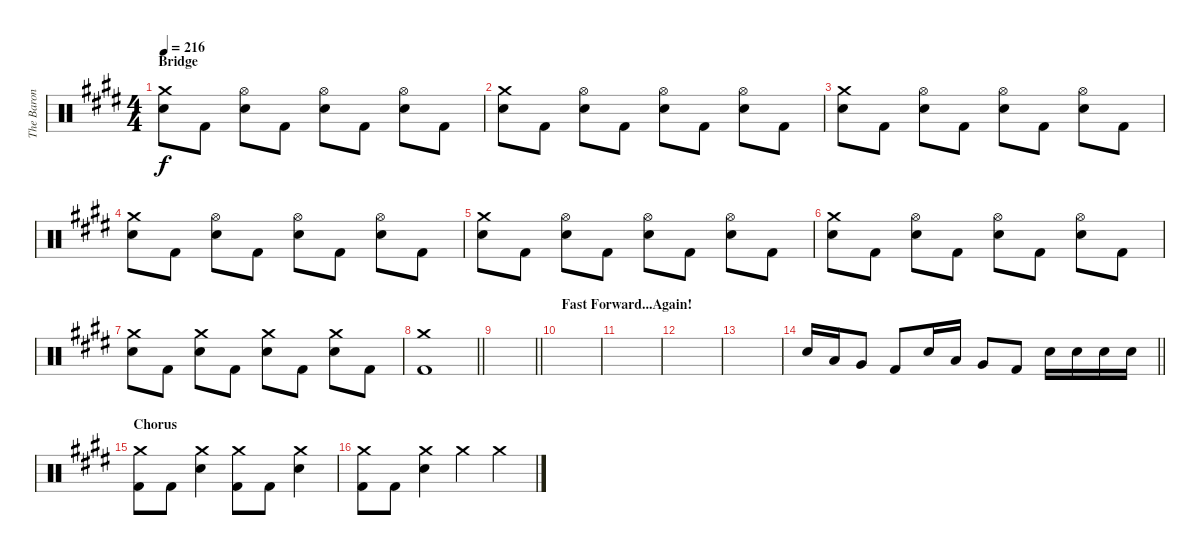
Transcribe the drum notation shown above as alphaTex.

\track ("The Baron Von Tito" "The Baron ") {instrument percussion}
\staff {score}
\articulation defaults
\ts (4 4)
\section ("" "Bridge")
\tempo 216
\clef neutral
\ks e
("Crash medium (hit)" "Electric Snare (hit)").8{dy f} "Kick (hit) 2".8 ("Hi-Hat (open)" "Electric Snare (hit)").8 "Kick (hit) 2".8 ("Hi-Hat (open)" "Electric Snare (hit)").8 "Kick (hit) 2".8 ("Hi-Hat (open)" "Electric Snare (hit)").8 "Kick (hit) 2".8 |
("Crash medium (hit)" "Electric Snare (hit)").8 "Kick (hit) 2".8 ("Hi-Hat (open)" "Electric Snare (hit)").8 "Kick (hit) 2".8 ("Hi-Hat (open)" "Electric Snare (hit)").8 "Kick (hit) 2".8 ("Hi-Hat (open)" "Electric Snare (hit)").8 "Kick (hit) 2".8 |
("Crash medium (hit)" "Electric Snare (hit)").8 "Kick (hit) 2".8 ("Hi-Hat (open)" "Electric Snare (hit)").8 "Kick (hit) 2".8 ("Hi-Hat (open)" "Electric Snare (hit)").8 "Kick (hit) 2".8 ("Hi-Hat (open)" "Electric Snare (hit)").8 "Kick (hit) 2".8 |
("Crash medium (hit)" "Electric Snare (hit)").8 "Kick (hit) 2".8 ("Hi-Hat (open)" "Electric Snare (hit)").8 "Kick (hit) 2".8 ("Hi-Hat (open)" "Electric Snare (hit)").8 "Kick (hit) 2".8 ("Hi-Hat (open)" "Electric Snare (hit)").8 "Kick (hit) 2".8 |
("Crash medium (hit)" "Electric Snare (hit)").8 "Kick (hit) 2".8 ("Hi-Hat (open)" "Electric Snare (hit)").8 "Kick (hit) 2".8 ("Hi-Hat (open)" "Electric Snare (hit)").8 "Kick (hit) 2".8 ("Hi-Hat (open)" "Electric Snare (hit)").8 "Kick (hit) 2".8 |
("Crash medium (hit)" "Electric Snare (hit)").8 "Kick (hit) 2".8 ("Hi-Hat (open)" "Electric Snare (hit)").8 "Kick (hit) 2".8 ("Hi-Hat (open)" "Electric Snare (hit)").8 "Kick (hit) 2".8 ("Hi-Hat (open)" "Electric Snare (hit)").8 "Kick (hit) 2".8 |
("Crash medium (hit)" "Electric Snare (hit)").8 "Kick (hit) 2".8 ("Crash medium (hit)" "Electric Snare (hit)").8 "Kick (hit) 2".8 ("Crash medium (hit)" "Electric Snare (hit)").8 "Kick (hit) 2".8 ("Crash medium (hit)" "Electric Snare (hit)").8 "Kick (hit) 2".8 |
\barLineRight lightlight
("Crash medium (hit)" "Kick (hit) 2").1 |
\barLineRight lightlight
|
\section ("" "Fast Forward...Again!")
|
|
|
|
\barLineRight lightlight "Electric Snare (hit)".16 "Low Tom (hit)".16 "Very Low Tom (hit)".8 "Kick (hit) 2".8 "Electric Snare (hit)".16 "Low Tom (hit)".16 "Very Low Tom (hit)".8 "Kick (hit) 2".8 "Electric Snare (hit)".16 "Electric Snare (hit)".16 "Electric Snare (hit)".16 "Electric Snare (hit)".16
|
\section ("" "Chorus")
("Crash medium (hit)" "Kick (hit) 2").8 "Kick (hit) 2".8 ("Crash medium (hit)" "Electric Snare (hit)").4 ("Crash medium (hit)" "Kick (hit) 2").8 "Kick (hit) 2".8 ("Crash medium (hit)" "Electric Snare (hit)").4 |
("Crash medium (hit)" "Kick (hit) 2").8 "Kick (hit) 2".8 ("Crash medium (hit)" "Electric Snare (hit)").4 "Crash medium (hit)".4 "Crash medium (hit)".4
